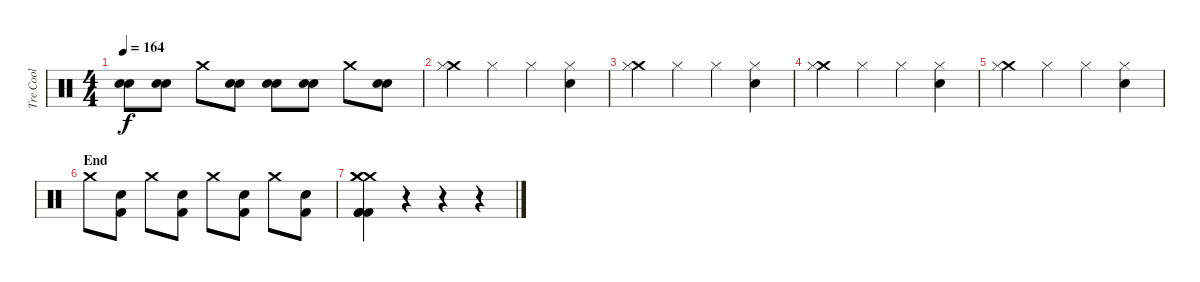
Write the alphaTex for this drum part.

\track ("Tre Cool" "Tre Cool") {instrument percussion}
\staff {score}
\articulation defaults
\ts (4 4)
\tempo 164
\clef neutral
\ks c
("Snare (hit) 2" "Snare (hit) 2").8{dy f} ("Snare (hit) 2" "Snare (hit) 2").8 "Crash medium (hit)".8 ("Snare (hit) 2" "Snare (hit) 2").8 ("Snare (hit) 2" "Snare (hit) 2").8 ("Snare (hit) 2" "Snare (hit) 2").8 "Crash medium (hit)".8 ("Snare (hit) 2" "Snare (hit) 2").8 |
("Crash medium (hit)" "Hi-Hat (closed)").4 "Hi-Hat (closed)".4 "Hi-Hat (closed)".4 ("Snare (hit) 2" "Hi-Hat (closed)").4 |
("Crash medium (hit)" "Hi-Hat (closed)").4 "Hi-Hat (closed)".4 "Hi-Hat (closed)".4 ("Snare (hit) 2" "Hi-Hat (closed)").4 |
("Crash medium (hit)" "Hi-Hat (closed)").4 "Hi-Hat (closed)".4 "Hi-Hat (closed)".4 ("Snare (hit) 2" "Hi-Hat (closed)").4 |
("Crash medium (hit)" "Hi-Hat (closed)").4 "Hi-Hat (closed)".4 "Hi-Hat (closed)".4 ("Snare (hit) 2" "Hi-Hat (closed)").4 |
\section ("" "End")
"Crash medium (hit)".8 ("Snare (hit) 2" "Kick (hit) 2").8 "Crash medium (hit)".8 ("Snare (hit) 2" "Kick (hit) 2").8 "Crash medium (hit)".8 ("Snare (hit) 2" "Kick (hit) 2").8 "Crash medium (hit)".8 ("Snare (hit) 2" "Kick (hit) 2").8 |
("Crash medium (hit)" "Crash medium (hit)" "Crash medium (hit)" "Kick (hit) 2" "Kick (hit) 2" "Kick (hit) 2").4 r.4 r.4 r.4
